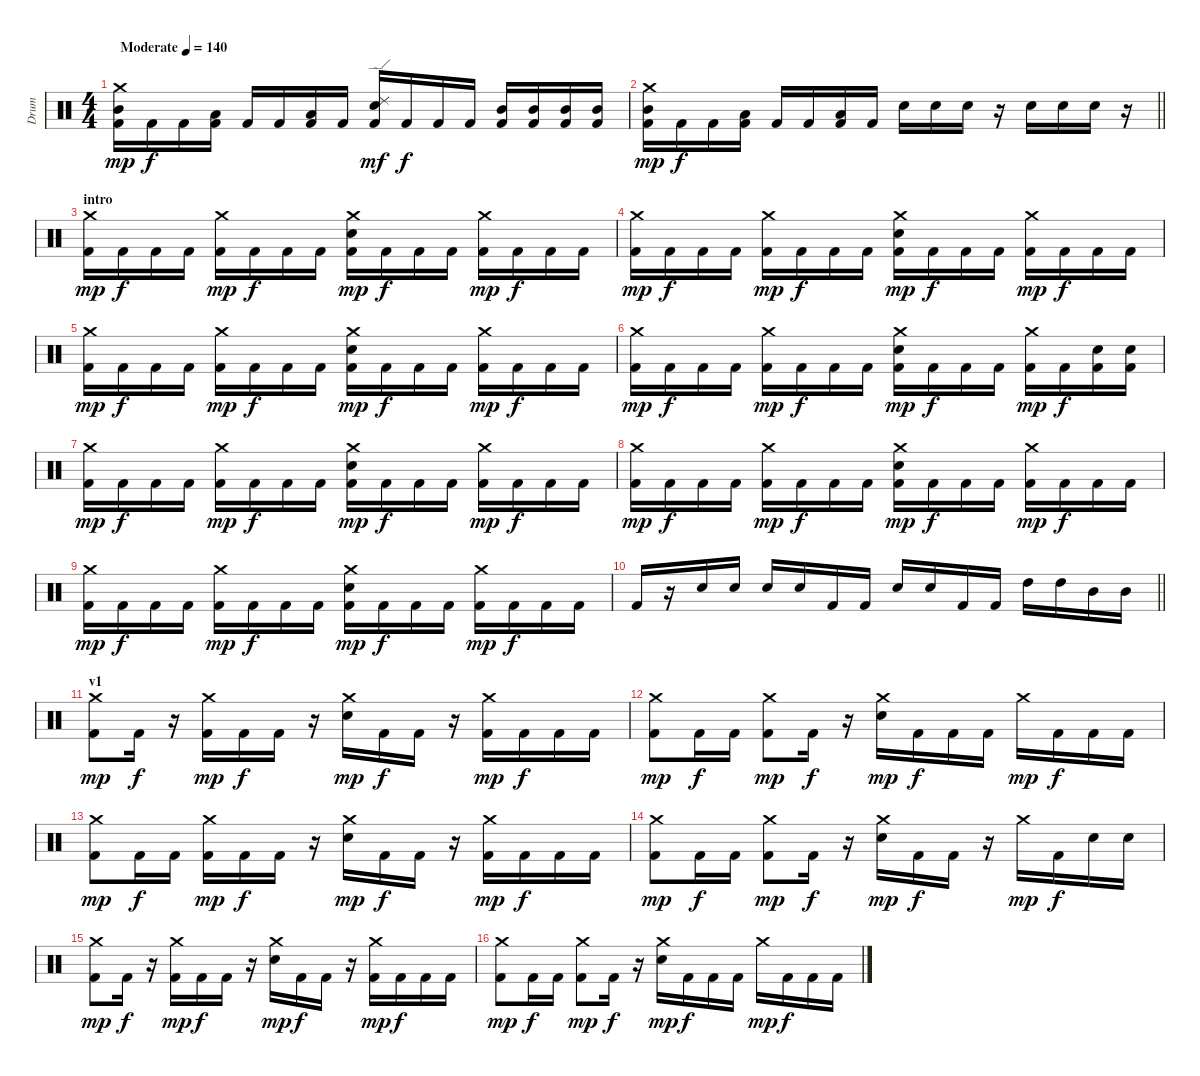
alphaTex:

\track ("Drum" "Drum") {instrument percussion}
\staff {score}
\articulation defaults
\ts (4 4)
\tempo (140 "Moderate")
\clef neutral
\ks c
("Crash medium (hit)" "Mid Tom (hit)" "Kick (hit) 2").16{dy mp} "Kick (hit) 2".16{dy f} "Kick (hit) 2".16 ("Low Tom (hit)" "Kick (hit) 2").16 "Kick (hit) 2".16 "Kick (hit) 2".16 ("Low Tom (hit)" "Kick (hit) 2").16 "Kick (hit) 2".16 ("Ride (edge) 2" "Kick (hit) 2" "Electric Snare (hit)").16{dy mf} "Kick (hit) 2".16{dy f} "Kick (hit) 2".16 "Kick (hit) 2".16 ("Kick (hit) 2" "Mid Tom (hit)").16 ("Kick (hit) 2" "Mid Tom (hit)").16 ("Kick (hit) 2" "Mid Tom (hit)").16 ("Kick (hit) 2" "Mid Tom (hit)").16 |
\barLineRight lightlight
("Crash medium (hit)" "Mid Tom (hit)" "Kick (hit) 2").16{dy mp} "Kick (hit) 2".16{dy f} "Kick (hit) 2".16 ("Low Tom (hit)" "Kick (hit) 2").16 "Kick (hit) 2".16 "Kick (hit) 2".16 ("Low Tom (hit)" "Kick (hit) 2").16 "Kick (hit) 2".16 "Electric Snare (hit)".16 "Electric Snare (hit)".16 "Electric Snare (hit)".16 r.16 "Electric Snare (hit)".16 "Electric Snare (hit)".16 "Electric Snare (hit)".16 r.16 |
\section ("" "intro")
("Kick (hit) 2" "Crash medium (hit)").16{dy mp} "Kick (hit) 2".16{dy f} "Kick (hit) 2".16 "Kick (hit) 2".16 ("Crash medium (hit)" "Kick (hit) 2").16{dy mp} "Kick (hit) 2".16{dy f} "Kick (hit) 2".16 "Kick (hit) 2".16 ("Kick (hit) 2" "Electric Snare (hit)" "Crash medium (hit)").16{dy mp} "Kick (hit) 2".16{dy f} "Kick (hit) 2".16 "Kick (hit) 2".16 ("Crash medium (hit)" "Kick (hit) 2").16{dy mp} "Kick (hit) 2".16{dy f} "Kick (hit) 2".16 "Kick (hit) 2".16 |
("Kick (hit) 2" "Crash medium (hit)").16{dy mp} "Kick (hit) 2".16{dy f} "Kick (hit) 2".16 "Kick (hit) 2".16 ("Kick (hit) 2" "Crash medium (hit)").16{dy mp} "Kick (hit) 2".16{dy f} "Kick (hit) 2".16 "Kick (hit) 2".16 ("Crash medium (hit)" "Electric Snare (hit)" "Kick (hit) 2").16{dy mp} "Kick (hit) 2".16{dy f} "Kick (hit) 2".16 "Kick (hit) 2".16 ("Crash medium (hit)" "Kick (hit) 2").16{dy mp} "Kick (hit) 2".16{dy f} "Kick (hit) 2".16 "Kick (hit) 2".16 |
("Crash medium (hit)" "Kick (hit) 2").16{dy mp} "Kick (hit) 2".16{dy f} "Kick (hit) 2".16 "Kick (hit) 2".16 ("Crash medium (hit)" "Kick (hit) 2").16{dy mp} "Kick (hit) 2".16{dy f} "Kick (hit) 2".16 "Kick (hit) 2".16 ("Crash medium (hit)" "Kick (hit) 2" "Electric Snare (hit)").16{dy mp} "Kick (hit) 2".16{dy f} "Kick (hit) 2".16 "Kick (hit) 2".16 ("Crash medium (hit)" "Kick (hit) 2").16{dy mp} "Kick (hit) 2".16{dy f} "Kick (hit) 2".16 "Kick (hit) 2".16 |
("Crash medium (hit)" "Kick (hit) 2").16{dy mp} "Kick (hit) 2".16{dy f} "Kick (hit) 2".16 "Kick (hit) 2".16 ("Crash medium (hit)" "Kick (hit) 2").16{dy mp} "Kick (hit) 2".16{dy f} "Kick (hit) 2".16 "Kick (hit) 2".16 ("Crash medium (hit)" "Kick (hit) 2" "Electric Snare (hit)").16{dy mp} "Kick (hit) 2".16{dy f} "Kick (hit) 2".16 "Kick (hit) 2".16 ("Crash medium (hit)" "Kick (hit) 2").16{dy mp} "Kick (hit) 2".16{dy f} ("Electric Snare (hit)" "Kick (hit) 2").16 ("Electric Snare (hit)" "Kick (hit) 2").16 |
("Kick (hit) 2" "Crash medium (hit)").16{dy mp} "Kick (hit) 2".16{dy f} "Kick (hit) 2".16 "Kick (hit) 2".16 ("Crash medium (hit)" "Kick (hit) 2").16{dy mp} "Kick (hit) 2".16{dy f} "Kick (hit) 2".16 "Kick (hit) 2".16 ("Kick (hit) 2" "Electric Snare (hit)" "Crash medium (hit)").16{dy mp} "Kick (hit) 2".16{dy f} "Kick (hit) 2".16 "Kick (hit) 2".16 ("Crash medium (hit)" "Kick (hit) 2").16{dy mp} "Kick (hit) 2".16{dy f} "Kick (hit) 2".16 "Kick (hit) 2".16 |
("Kick (hit) 2" "Crash medium (hit)").16{dy mp} "Kick (hit) 2".16{dy f} "Kick (hit) 2".16 "Kick (hit) 2".16 ("Kick (hit) 2" "Crash medium (hit)").16{dy mp} "Kick (hit) 2".16{dy f} "Kick (hit) 2".16 "Kick (hit) 2".16 ("Kick (hit) 2" "Electric Snare (hit)" "Crash medium (hit)").16{dy mp} "Kick (hit) 2".16{dy f} "Kick (hit) 2".16 "Kick (hit) 2".16 ("Kick (hit) 2" "Crash medium (hit)").16{dy mp} "Kick (hit) 2".16{dy f} "Kick (hit) 2".16 "Kick (hit) 2".16 |
("Kick (hit) 2" "Crash medium (hit)").16{dy mp} "Kick (hit) 2".16{dy f} "Kick (hit) 2".16 "Kick (hit) 2".16 ("Crash medium (hit)" "Kick (hit) 2").16{dy mp} "Kick (hit) 2".16{dy f} "Kick (hit) 2".16 "Kick (hit) 2".16 ("Kick (hit) 2" "Electric Snare (hit)" "Crash medium (hit)").16{dy mp} "Kick (hit) 2".16{dy f} "Kick (hit) 2".16 "Kick (hit) 2".16 ("Crash medium (hit)" "Kick (hit) 2").16{dy mp} "Kick (hit) 2".16{dy f} "Kick (hit) 2".16 "Kick (hit) 2".16 |
\barLineRight lightlight "Kick (hit) 2".16
r.16 "Electric Snare (hit)".16 "Electric Snare (hit)".16 "Electric Snare (hit)".16 "Electric Snare (hit)".16 "Kick (hit) 2".16 "Kick (hit) 2".16 "Electric Snare (hit)".16 "Electric Snare (hit)".16 "Kick (hit) 2".16 "Kick (hit) 2".16 "High Tom (hit)".16 "High Tom (hit)".16 "Mid Tom (hit)".16 "Mid Tom (hit)".16 |
\section ("" "v1")
("Kick (hit) 2" "Crash medium (hit)").8{dy mp} "Kick (hit) 2".16{dy f} r.16 ("Crash medium (hit)" "Kick (hit) 2").16{dy mp} "Kick (hit) 2".16{dy f} "Kick (hit) 2".16 r.16 ("Crash medium (hit)" "Electric Snare (hit)").16{dy mp} "Kick (hit) 2".16{dy f} "Kick (hit) 2".16 r.16 ("Kick (hit) 2" "Crash medium (hit)").16{dy mp} "Kick (hit) 2".16{dy f} "Kick (hit) 2".16 "Kick (hit) 2".16 |
("Crash medium (hit)" "Kick (hit) 2").8{dy mp} "Kick (hit) 2".16{dy f} "Kick (hit) 2".16 ("Kick (hit) 2" "Crash medium (hit)").8{dy mp} "Kick (hit) 2".16{dy f} r.16 ("Crash medium (hit)" "Electric Snare (hit)").16{dy mp} "Kick (hit) 2".16{dy f} "Kick (hit) 2".16 "Kick (hit) 2".16 "Crash medium (hit)".16{dy mp} "Kick (hit) 2".16{dy f} "Kick (hit) 2".16 "Kick (hit) 2".16 |
("Crash medium (hit)" "Kick (hit) 2").8{dy mp} "Kick (hit) 2".16{dy f} "Kick (hit) 2".16 ("Kick (hit) 2" "Crash medium (hit)").16{dy mp} "Kick (hit) 2".16{dy f} "Kick (hit) 2".16 r.16 ("Crash medium (hit)" "Electric Snare (hit)").16{dy mp} "Kick (hit) 2".16{dy f} "Kick (hit) 2".16 r.16 ("Kick (hit) 2" "Crash medium (hit)").16{dy mp} "Kick (hit) 2".16{dy f} "Kick (hit) 2".16 "Kick (hit) 2".16 |
("Crash medium (hit)" "Kick (hit) 2").8{dy mp} "Kick (hit) 2".16{dy f} "Kick (hit) 2".16 ("Kick (hit) 2" "Crash medium (hit)").8{dy mp} "Kick (hit) 2".16{dy f} r.16 ("Crash medium (hit)" "Electric Snare (hit)").16{dy mp} "Kick (hit) 2".16{dy f} "Kick (hit) 2".16 r.16 "Crash medium (hit)".16{dy mp} "Kick (hit) 2".16{dy f} "Snare (hit) 2".16 "Snare (hit) 2".16 |
("Crash medium (hit)" "Kick (hit) 2").8{dy mp} "Kick (hit) 2".16{dy f} r.16 ("Kick (hit) 2" "Crash medium (hit)").16{dy mp} "Kick (hit) 2".16{dy f} "Kick (hit) 2".16 r.16 ("Crash medium (hit)" "Electric Snare (hit)").16{dy mp} "Kick (hit) 2".16{dy f} "Kick (hit) 2".16 r.16 ("Kick (hit) 2" "Crash medium (hit)").16{dy mp} "Kick (hit) 2".16{dy f} "Kick (hit) 2".16 "Kick (hit) 2".16 |
("Crash medium (hit)" "Kick (hit) 2").8{dy mp} "Kick (hit) 2".16{dy f} "Kick (hit) 2".16 ("Kick (hit) 2" "Crash medium (hit)").8{dy mp} "Kick (hit) 2".16{dy f} r.16 ("Electric Snare (hit)" "Crash medium (hit)").16{dy mp} "Kick (hit) 2".16{dy f} "Kick (hit) 2".16 "Kick (hit) 2".16 "Crash medium (hit)".16{dy mp} "Kick (hit) 2".16{dy f} "Kick (hit) 2".16 "Kick (hit) 2".16
